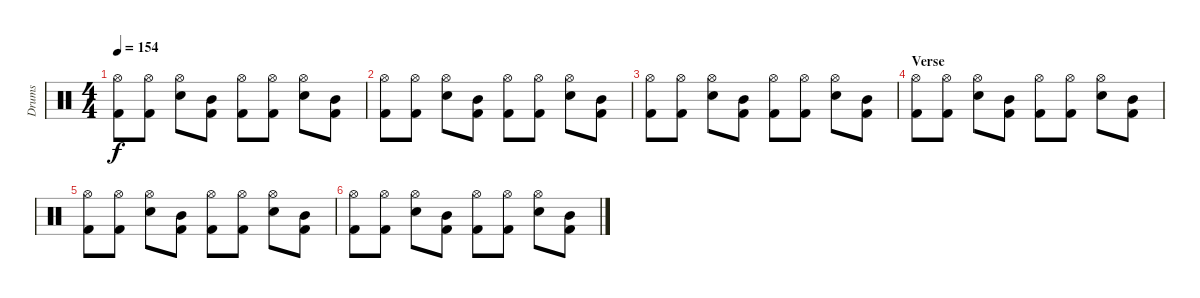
\track ("Drums" "Drums") {instrument percussion}
\staff {score}
\articulation defaults
\ts (4 4)
\tempo 154
\clef neutral
\ks c
("Hi-Hat (open)" "Kick (hit) 2").8{dy f} ("Hi-Hat (open)" "Kick (hit) 2").8 ("Hi-Hat (open)" "Electric Snare (hit)").8 ("Mid Tom (hit)" "Kick (hit) 2").8 ("Hi-Hat (open)" "Kick (hit) 2").8 ("Hi-Hat (open)" "Kick (hit) 2").8 ("Hi-Hat (open)" "Electric Snare (hit)").8 ("Mid Tom (hit)" "Kick (hit) 2").8 |
("Hi-Hat (open)" "Kick (hit) 2").8 ("Hi-Hat (open)" "Kick (hit) 2").8 ("Hi-Hat (open)" "Electric Snare (hit)").8 ("Mid Tom (hit)" "Kick (hit) 2").8 ("Hi-Hat (open)" "Kick (hit) 2").8 ("Hi-Hat (open)" "Kick (hit) 2").8 ("Hi-Hat (open)" "Electric Snare (hit)").8 ("Mid Tom (hit)" "Kick (hit) 2").8 |
("Hi-Hat (open)" "Kick (hit) 2").8 ("Hi-Hat (open)" "Kick (hit) 2").8 ("Hi-Hat (open)" "Electric Snare (hit)").8 ("Mid Tom (hit)" "Kick (hit) 2").8 ("Hi-Hat (open)" "Kick (hit) 2").8 ("Hi-Hat (open)" "Kick (hit) 2").8 ("Hi-Hat (open)" "Electric Snare (hit)").8 ("Mid Tom (hit)" "Kick (hit) 2").8 |
\section ("" "Verse")
("Hi-Hat (open)" "Kick (hit) 2").8 ("Hi-Hat (open)" "Kick (hit) 2").8 ("Hi-Hat (open)" "Electric Snare (hit)").8 ("Mid Tom (hit)" "Kick (hit) 2").8 ("Hi-Hat (open)" "Kick (hit) 2").8 ("Hi-Hat (open)" "Kick (hit) 2").8 ("Hi-Hat (open)" "Electric Snare (hit)").8 ("Mid Tom (hit)" "Kick (hit) 2").8 |
("Hi-Hat (open)" "Kick (hit) 2").8 ("Hi-Hat (open)" "Kick (hit) 2").8 ("Hi-Hat (open)" "Electric Snare (hit)").8 ("Mid Tom (hit)" "Kick (hit) 2").8 ("Hi-Hat (open)" "Kick (hit) 2").8 ("Hi-Hat (open)" "Kick (hit) 2").8 ("Hi-Hat (open)" "Electric Snare (hit)").8 ("Mid Tom (hit)" "Kick (hit) 2").8 |
("Hi-Hat (open)" "Kick (hit) 2").8 ("Hi-Hat (open)" "Kick (hit) 2").8 ("Hi-Hat (open)" "Electric Snare (hit)").8 ("Mid Tom (hit)" "Kick (hit) 2").8 ("Hi-Hat (open)" "Kick (hit) 2").8 ("Hi-Hat (open)" "Kick (hit) 2").8 ("Hi-Hat (open)" "Electric Snare (hit)").8 ("Mid Tom (hit)" "Kick (hit) 2").8
